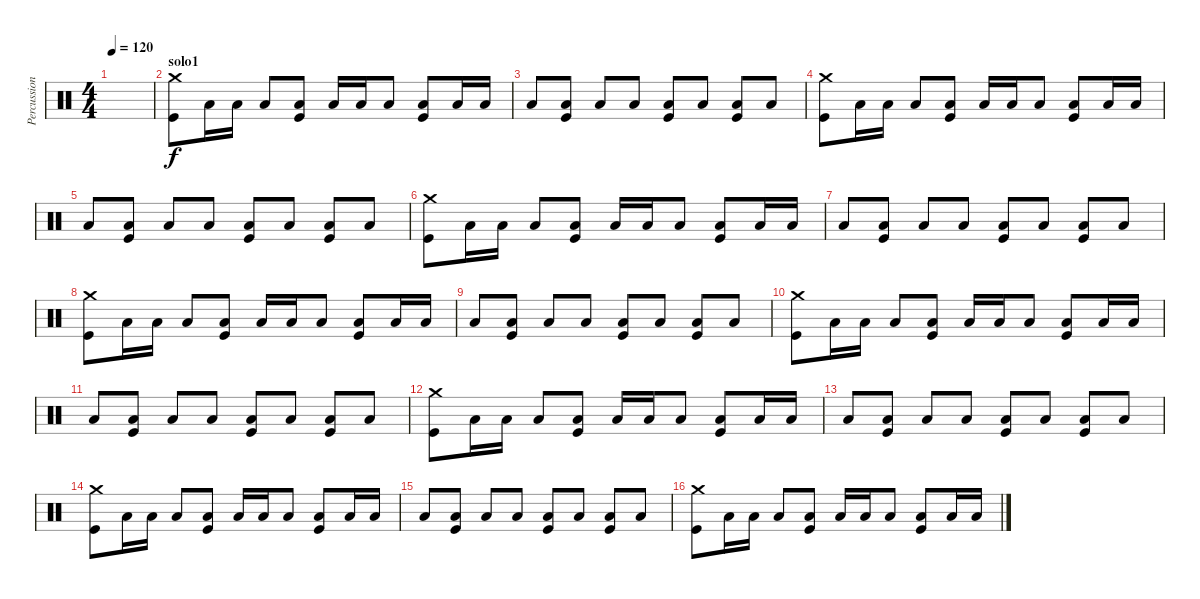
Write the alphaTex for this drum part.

\track ("Percussion" "Percussion") {instrument percussion}
\staff {score}
\articulation defaults
\ts (4 4)
\tempo 120
\clef neutral
\ks c
|
\section ("" "solo1")
("Crash medium (hit)" "Kick (hit)").8 "Low Floor Tom (hit)".16 "Low Floor Tom (hit)".16 "Low Floor Tom (hit)".8 ("Low Floor Tom (hit)" "Kick (hit)").8 "Low Floor Tom (hit)".16 "Low Floor Tom (hit)".16 "Low Floor Tom (hit)".8 ("Low Floor Tom (hit)" "Kick (hit)").8 "Low Floor Tom (hit)".16 "Low Floor Tom (hit)".16 |
"Low Floor Tom (hit)".8 ("Low Floor Tom (hit)" "Kick (hit)").8 "Low Floor Tom (hit)".8 "Low Floor Tom (hit)".8 ("Low Floor Tom (hit)" "Kick (hit)").8 "Low Floor Tom (hit)".8 ("Low Floor Tom (hit)" "Kick (hit)").8 "Low Floor Tom (hit)".8 |
("Crash medium (hit)" "Kick (hit)").8 "Low Floor Tom (hit)".16 "Low Floor Tom (hit)".16 "Low Floor Tom (hit)".8 ("Low Floor Tom (hit)" "Kick (hit)").8 "Low Floor Tom (hit)".16 "Low Floor Tom (hit)".16 "Low Floor Tom (hit)".8 ("Low Floor Tom (hit)" "Kick (hit)").8 "Low Floor Tom (hit)".16 "Low Floor Tom (hit)".16 |
"Low Floor Tom (hit)".8 ("Low Floor Tom (hit)" "Kick (hit)").8 "Low Floor Tom (hit)".8 "Low Floor Tom (hit)".8 ("Low Floor Tom (hit)" "Kick (hit)").8 "Low Floor Tom (hit)".8 ("Low Floor Tom (hit)" "Kick (hit)").8 "Low Floor Tom (hit)".8 |
("Crash medium (hit)" "Kick (hit)").8 "Low Floor Tom (hit)".16 "Low Floor Tom (hit)".16 "Low Floor Tom (hit)".8 ("Low Floor Tom (hit)" "Kick (hit)").8 "Low Floor Tom (hit)".16 "Low Floor Tom (hit)".16 "Low Floor Tom (hit)".8 ("Low Floor Tom (hit)" "Kick (hit)").8 "Low Floor Tom (hit)".16 "Low Floor Tom (hit)".16 |
"Low Floor Tom (hit)".8 ("Low Floor Tom (hit)" "Kick (hit)").8 "Low Floor Tom (hit)".8 "Low Floor Tom (hit)".8 ("Low Floor Tom (hit)" "Kick (hit)").8 "Low Floor Tom (hit)".8 ("Low Floor Tom (hit)" "Kick (hit)").8 "Low Floor Tom (hit)".8 |
("Crash medium (hit)" "Kick (hit)").8 "Low Floor Tom (hit)".16 "Low Floor Tom (hit)".16 "Low Floor Tom (hit)".8 ("Low Floor Tom (hit)" "Kick (hit)").8 "Low Floor Tom (hit)".16 "Low Floor Tom (hit)".16 "Low Floor Tom (hit)".8 ("Low Floor Tom (hit)" "Kick (hit)").8 "Low Floor Tom (hit)".16 "Low Floor Tom (hit)".16 |
"Low Floor Tom (hit)".8 ("Low Floor Tom (hit)" "Kick (hit)").8 "Low Floor Tom (hit)".8 "Low Floor Tom (hit)".8 ("Low Floor Tom (hit)" "Kick (hit)").8 "Low Floor Tom (hit)".8 ("Low Floor Tom (hit)" "Kick (hit)").8 "Low Floor Tom (hit)".8 |
("Crash medium (hit)" "Kick (hit)").8 "Low Floor Tom (hit)".16 "Low Floor Tom (hit)".16 "Low Floor Tom (hit)".8 ("Low Floor Tom (hit)" "Kick (hit)").8 "Low Floor Tom (hit)".16 "Low Floor Tom (hit)".16 "Low Floor Tom (hit)".8 ("Low Floor Tom (hit)" "Kick (hit)").8 "Low Floor Tom (hit)".16 "Low Floor Tom (hit)".16 |
"Low Floor Tom (hit)".8 ("Low Floor Tom (hit)" "Kick (hit)").8 "Low Floor Tom (hit)".8 "Low Floor Tom (hit)".8 ("Low Floor Tom (hit)" "Kick (hit)").8 "Low Floor Tom (hit)".8 ("Low Floor Tom (hit)" "Kick (hit)").8 "Low Floor Tom (hit)".8 |
("Crash medium (hit)" "Kick (hit)").8 "Low Floor Tom (hit)".16 "Low Floor Tom (hit)".16 "Low Floor Tom (hit)".8 ("Low Floor Tom (hit)" "Kick (hit)").8 "Low Floor Tom (hit)".16 "Low Floor Tom (hit)".16 "Low Floor Tom (hit)".8 ("Low Floor Tom (hit)" "Kick (hit)").8 "Low Floor Tom (hit)".16 "Low Floor Tom (hit)".16 |
"Low Floor Tom (hit)".8 ("Low Floor Tom (hit)" "Kick (hit)").8 "Low Floor Tom (hit)".8 "Low Floor Tom (hit)".8 ("Low Floor Tom (hit)" "Kick (hit)").8 "Low Floor Tom (hit)".8 ("Low Floor Tom (hit)" "Kick (hit)").8 "Low Floor Tom (hit)".8 |
("Crash medium (hit)" "Kick (hit)").8 "Low Floor Tom (hit)".16 "Low Floor Tom (hit)".16 "Low Floor Tom (hit)".8 ("Low Floor Tom (hit)" "Kick (hit)").8 "Low Floor Tom (hit)".16 "Low Floor Tom (hit)".16 "Low Floor Tom (hit)".8 ("Low Floor Tom (hit)" "Kick (hit)").8 "Low Floor Tom (hit)".16 "Low Floor Tom (hit)".16 |
"Low Floor Tom (hit)".8 ("Low Floor Tom (hit)" "Kick (hit)").8 "Low Floor Tom (hit)".8 "Low Floor Tom (hit)".8 ("Low Floor Tom (hit)" "Kick (hit)").8 "Low Floor Tom (hit)".8 ("Low Floor Tom (hit)" "Kick (hit)").8 "Low Floor Tom (hit)".8 |
("Crash medium (hit)" "Kick (hit)").8 "Low Floor Tom (hit)".16 "Low Floor Tom (hit)".16 "Low Floor Tom (hit)".8 ("Low Floor Tom (hit)" "Kick (hit)").8 "Low Floor Tom (hit)".16 "Low Floor Tom (hit)".16 "Low Floor Tom (hit)".8 ("Low Floor Tom (hit)" "Kick (hit)").8 "Low Floor Tom (hit)".16 "Low Floor Tom (hit)".16
